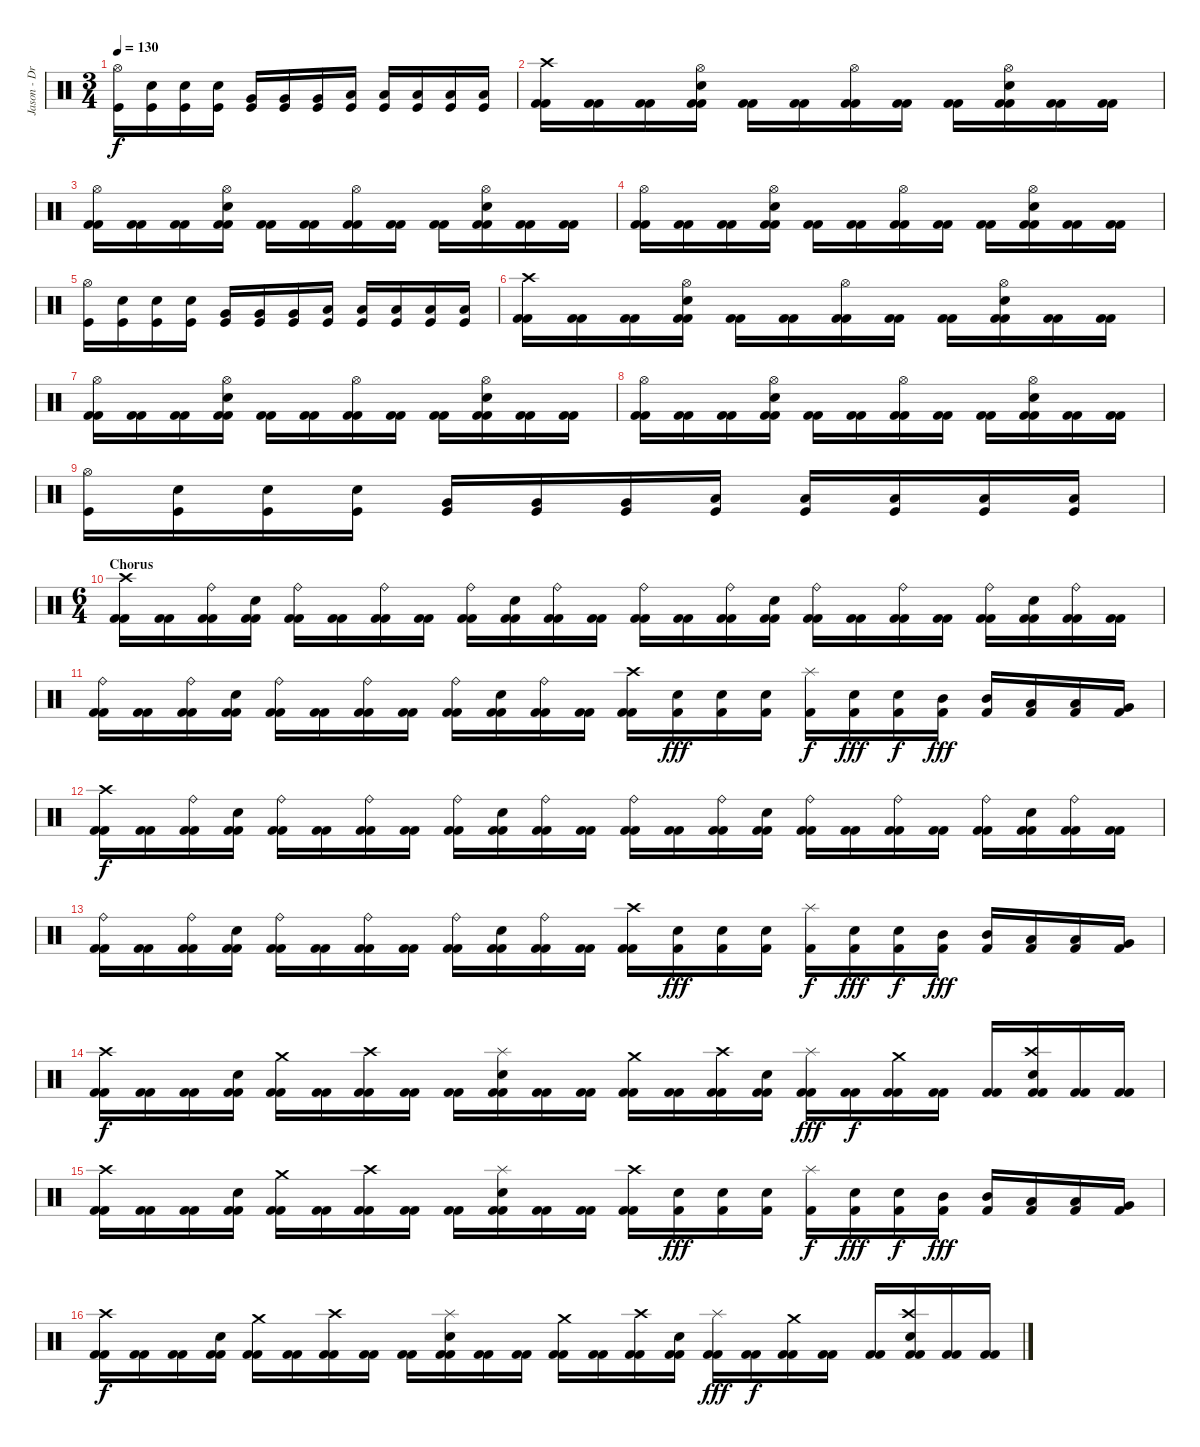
\track ("Jason - Drums" "Jason - Dr") {instrument percussion}
\staff {score}
\articulation defaults
\ts (3 4)
\tempo 130
\clef neutral
\ks c
("Hi-Hat (open)" "Kick (hit)").16{dy f} ("Electric Snare (hit)" "Kick (hit)").16 ("Electric Snare (hit)" "Kick (hit)").16 ("Electric Snare (hit)" "Kick (hit)").16 ("Very Low Tom (hit)" "Kick (hit)").16 ("Very Low Tom (hit)" "Kick (hit)").16 ("Very Low Tom (hit)" "Kick (hit)").16 ("Low Floor Tom (hit)" "Kick (hit)").16 ("Low Floor Tom (hit)" "Kick (hit)").16 ("Low Floor Tom (hit)" "Kick (hit)").16 ("Low Floor Tom (hit)" "Kick (hit)").16 ("Low Floor Tom (hit)" "Kick (hit)").16 |
("Crash high (hit)" "Kick (hit) 2" "Kick (hit) 2").16 ("Kick (hit) 2" "Kick (hit) 2").16 ("Kick (hit) 2" "Kick (hit) 2").16 ("Hi-Hat (open)" "Electric Snare (hit)" "Kick (hit) 2" "Kick (hit) 2").16 ("Kick (hit) 2" "Kick (hit) 2").16 ("Kick (hit) 2" "Kick (hit) 2").16 ("Hi-Hat (open)" "Kick (hit) 2" "Kick (hit) 2").16 ("Kick (hit) 2" "Kick (hit) 2").16 ("Kick (hit) 2" "Kick (hit) 2").16 ("Hi-Hat (open)" "Electric Snare (hit)" "Kick (hit) 2" "Kick (hit) 2").16 ("Kick (hit) 2" "Kick (hit) 2").16 ("Kick (hit) 2" "Kick (hit) 2").16 |
("Hi-Hat (open)" "Kick (hit) 2" "Kick (hit) 2").16 ("Kick (hit) 2" "Kick (hit) 2").16 ("Kick (hit) 2" "Kick (hit) 2").16 ("Hi-Hat (open)" "Electric Snare (hit)" "Kick (hit) 2" "Kick (hit) 2").16 ("Kick (hit) 2" "Kick (hit) 2").16 ("Kick (hit) 2" "Kick (hit) 2").16 ("Hi-Hat (open)" "Kick (hit) 2" "Kick (hit) 2").16 ("Kick (hit) 2" "Kick (hit) 2").16 ("Kick (hit) 2" "Kick (hit) 2").16 ("Hi-Hat (open)" "Electric Snare (hit)" "Kick (hit) 2" "Kick (hit) 2").16 ("Kick (hit) 2" "Kick (hit) 2").16 ("Kick (hit) 2" "Kick (hit) 2").16 |
("Hi-Hat (open)" "Kick (hit) 2" "Kick (hit) 2").16 ("Kick (hit) 2" "Kick (hit) 2").16 ("Kick (hit) 2" "Kick (hit) 2").16 ("Hi-Hat (open)" "Electric Snare (hit)" "Kick (hit) 2" "Kick (hit) 2").16 ("Kick (hit) 2" "Kick (hit) 2").16 ("Kick (hit) 2" "Kick (hit) 2").16 ("Hi-Hat (open)" "Kick (hit) 2" "Kick (hit) 2").16 ("Kick (hit) 2" "Kick (hit) 2").16 ("Kick (hit) 2" "Kick (hit) 2").16 ("Hi-Hat (open)" "Electric Snare (hit)" "Kick (hit) 2" "Kick (hit) 2").16 ("Kick (hit) 2" "Kick (hit) 2").16 ("Kick (hit) 2" "Kick (hit) 2").16 |
("Hi-Hat (open)" "Kick (hit)").16 ("Electric Snare (hit)" "Kick (hit)").16 ("Electric Snare (hit)" "Kick (hit)").16 ("Electric Snare (hit)" "Kick (hit)").16 ("Very Low Tom (hit)" "Kick (hit)").16 ("Very Low Tom (hit)" "Kick (hit)").16 ("Very Low Tom (hit)" "Kick (hit)").16 ("Low Floor Tom (hit)" "Kick (hit)").16 ("Low Floor Tom (hit)" "Kick (hit)").16 ("Low Floor Tom (hit)" "Kick (hit)").16 ("Low Floor Tom (hit)" "Kick (hit)").16 ("Low Floor Tom (hit)" "Kick (hit)").16 |
("Crash high (hit)" "Kick (hit) 2" "Kick (hit) 2").16 ("Kick (hit) 2" "Kick (hit) 2").16 ("Kick (hit) 2" "Kick (hit) 2").16 ("Hi-Hat (open)" "Electric Snare (hit)" "Kick (hit) 2" "Kick (hit) 2").16 ("Kick (hit) 2" "Kick (hit) 2").16 ("Kick (hit) 2" "Kick (hit) 2").16 ("Hi-Hat (open)" "Kick (hit) 2" "Kick (hit) 2").16 ("Kick (hit) 2" "Kick (hit) 2").16 ("Kick (hit) 2" "Kick (hit) 2").16 ("Hi-Hat (open)" "Electric Snare (hit)" "Kick (hit) 2" "Kick (hit) 2").16 ("Kick (hit) 2" "Kick (hit) 2").16 ("Kick (hit) 2" "Kick (hit) 2").16 |
("Hi-Hat (open)" "Kick (hit) 2" "Kick (hit) 2").16 ("Kick (hit) 2" "Kick (hit) 2").16 ("Kick (hit) 2" "Kick (hit) 2").16 ("Hi-Hat (open)" "Electric Snare (hit)" "Kick (hit) 2" "Kick (hit) 2").16 ("Kick (hit) 2" "Kick (hit) 2").16 ("Kick (hit) 2" "Kick (hit) 2").16 ("Hi-Hat (open)" "Kick (hit) 2" "Kick (hit) 2").16 ("Kick (hit) 2" "Kick (hit) 2").16 ("Kick (hit) 2" "Kick (hit) 2").16 ("Hi-Hat (open)" "Electric Snare (hit)" "Kick (hit) 2" "Kick (hit) 2").16 ("Kick (hit) 2" "Kick (hit) 2").16 ("Kick (hit) 2" "Kick (hit) 2").16 |
("Hi-Hat (open)" "Kick (hit) 2" "Kick (hit) 2").16 ("Kick (hit) 2" "Kick (hit) 2").16 ("Kick (hit) 2" "Kick (hit) 2").16 ("Hi-Hat (open)" "Electric Snare (hit)" "Kick (hit) 2" "Kick (hit) 2").16 ("Kick (hit) 2" "Kick (hit) 2").16 ("Kick (hit) 2" "Kick (hit) 2").16 ("Hi-Hat (open)" "Kick (hit) 2" "Kick (hit) 2").16 ("Kick (hit) 2" "Kick (hit) 2").16 ("Kick (hit) 2" "Kick (hit) 2").16 ("Hi-Hat (open)" "Electric Snare (hit)" "Kick (hit) 2" "Kick (hit) 2").16 ("Kick (hit) 2" "Kick (hit) 2").16 ("Kick (hit) 2" "Kick (hit) 2").16 |
("Hi-Hat (open)" "Kick (hit)").16 ("Electric Snare (hit)" "Kick (hit)").16 ("Electric Snare (hit)" "Kick (hit)").16 ("Electric Snare (hit)" "Kick (hit)").16 ("Very Low Tom (hit)" "Kick (hit)").16 ("Very Low Tom (hit)" "Kick (hit)").16 ("Very Low Tom (hit)" "Kick (hit)").16 ("Low Floor Tom (hit)" "Kick (hit)").16 ("Low Floor Tom (hit)" "Kick (hit)").16 ("Low Floor Tom (hit)" "Kick (hit)").16 ("Low Floor Tom (hit)" "Kick (hit)").16 ("Low Floor Tom (hit)" "Kick (hit)").16 |
\ts (6 4)
\section ("" "Chorus")
("Crash high (hit)" "Kick (hit) 2" "Kick (hit) 2").16 ("Kick (hit) 2" "Kick (hit) 2").16 ("Ride (bell)" "Kick (hit) 2" "Kick (hit) 2").16 ("Electric Snare (hit)" "Kick (hit) 2" "Kick (hit) 2").16 ("Ride (bell)" "Kick (hit) 2" "Kick (hit) 2").16 ("Kick (hit) 2" "Kick (hit) 2").16 ("Ride (bell)" "Kick (hit) 2" "Kick (hit) 2").16 ("Kick (hit) 2" "Kick (hit) 2").16 ("Ride (bell)" "Kick (hit) 2" "Kick (hit) 2").16 ("Electric Snare (hit)" "Kick (hit) 2" "Kick (hit) 2").16 ("Ride (bell)" "Kick (hit) 2" "Kick (hit) 2").16 ("Kick (hit) 2" "Kick (hit) 2").16 ("Ride (bell)" "Kick (hit) 2" "Kick (hit) 2").16 ("Kick (hit) 2" "Kick (hit) 2").16 ("Ride (bell)" "Kick (hit) 2" "Kick (hit) 2").16 ("Electric Snare (hit)" "Kick (hit) 2" "Kick (hit) 2").16 ("Ride (bell)" "Kick (hit) 2" "Kick (hit) 2").16 ("Kick (hit) 2" "Kick (hit) 2").16 ("Ride (bell)" "Kick (hit) 2" "Kick (hit) 2").16 ("Kick (hit) 2" "Kick (hit) 2").16 ("Ride (bell)" "Kick (hit) 2" "Kick (hit) 2").16 ("Electric Snare (hit)" "Kick (hit) 2" "Kick (hit) 2").16 ("Ride (bell)" "Kick (hit) 2" "Kick (hit) 2").16 ("Kick (hit) 2" "Kick (hit) 2").16 |
("Ride (bell)" "Kick (hit) 2" "Kick (hit) 2").16 ("Kick (hit) 2" "Kick (hit) 2").16 ("Ride (bell)" "Kick (hit) 2" "Kick (hit) 2").16 ("Electric Snare (hit)" "Kick (hit) 2" "Kick (hit) 2").16 ("Ride (bell)" "Kick (hit) 2" "Kick (hit) 2").16 ("Kick (hit) 2" "Kick (hit) 2").16 ("Ride (bell)" "Kick (hit) 2" "Kick (hit) 2").16 ("Kick (hit) 2" "Kick (hit) 2").16 ("Ride (bell)" "Kick (hit) 2" "Kick (hit) 2").16 ("Electric Snare (hit)" "Kick (hit) 2" "Kick (hit) 2").16 ("Ride (bell)" "Kick (hit) 2" "Kick (hit) 2").16 ("Kick (hit) 2" "Kick (hit) 2").16 ("Crash high (hit)" "Kick (hit) 2" "Kick (hit) 2").16 ("Electric Snare (hit)" "Kick (hit) 2").16{dy fff} ("Electric Snare (hit)" "Kick (hit) 2").16 ("Electric Snare (hit)" "Kick (hit) 2").16 ("Splash (hit)" "Kick (hit) 2").16{dy f} ("Electric Snare (hit)" "Kick (hit) 2").16{dy fff} ("Electric Snare (hit)" "Kick (hit) 2").16{dy f} ("Mid Tom (hit)" "Kick (hit) 2").16{dy fff} ("Mid Tom (hit)" "Kick (hit) 2").16 ("Low Tom (hit)" "Kick (hit) 2").16 ("Low Tom (hit)" "Kick (hit) 2").16 ("Very Low Tom (hit)" "Kick (hit) 2").16 |
("Crash high (hit)" "Kick (hit) 2" "Kick (hit) 2").16{dy f} ("Kick (hit) 2" "Kick (hit) 2").16 ("Ride (bell)" "Kick (hit) 2" "Kick (hit) 2").16 ("Electric Snare (hit)" "Kick (hit) 2" "Kick (hit) 2").16 ("Ride (bell)" "Kick (hit) 2" "Kick (hit) 2").16 ("Kick (hit) 2" "Kick (hit) 2").16 ("Ride (bell)" "Kick (hit) 2" "Kick (hit) 2").16 ("Kick (hit) 2" "Kick (hit) 2").16 ("Ride (bell)" "Kick (hit) 2" "Kick (hit) 2").16 ("Electric Snare (hit)" "Kick (hit) 2" "Kick (hit) 2").16 ("Ride (bell)" "Kick (hit) 2" "Kick (hit) 2").16 ("Kick (hit) 2" "Kick (hit) 2").16 ("Ride (bell)" "Kick (hit) 2" "Kick (hit) 2").16 ("Kick (hit) 2" "Kick (hit) 2").16 ("Ride (bell)" "Kick (hit) 2" "Kick (hit) 2").16 ("Electric Snare (hit)" "Kick (hit) 2" "Kick (hit) 2").16 ("Ride (bell)" "Kick (hit) 2" "Kick (hit) 2").16 ("Kick (hit) 2" "Kick (hit) 2").16 ("Ride (bell)" "Kick (hit) 2" "Kick (hit) 2").16 ("Kick (hit) 2" "Kick (hit) 2").16 ("Ride (bell)" "Kick (hit) 2" "Kick (hit) 2").16 ("Electric Snare (hit)" "Kick (hit) 2" "Kick (hit) 2").16 ("Ride (bell)" "Kick (hit) 2" "Kick (hit) 2").16 ("Kick (hit) 2" "Kick (hit) 2").16 |
("Ride (bell)" "Kick (hit) 2" "Kick (hit) 2").16 ("Kick (hit) 2" "Kick (hit) 2").16 ("Ride (bell)" "Kick (hit) 2" "Kick (hit) 2").16 ("Electric Snare (hit)" "Kick (hit) 2" "Kick (hit) 2").16 ("Ride (bell)" "Kick (hit) 2" "Kick (hit) 2").16 ("Kick (hit) 2" "Kick (hit) 2").16 ("Ride (bell)" "Kick (hit) 2" "Kick (hit) 2").16 ("Kick (hit) 2" "Kick (hit) 2").16 ("Ride (bell)" "Kick (hit) 2" "Kick (hit) 2").16 ("Electric Snare (hit)" "Kick (hit) 2" "Kick (hit) 2").16 ("Ride (bell)" "Kick (hit) 2" "Kick (hit) 2").16 ("Kick (hit) 2" "Kick (hit) 2").16 ("Crash high (hit)" "Kick (hit) 2" "Kick (hit) 2").16 ("Electric Snare (hit)" "Kick (hit) 2").16{dy fff} ("Electric Snare (hit)" "Kick (hit) 2").16 ("Electric Snare (hit)" "Kick (hit) 2").16 ("Splash (hit)" "Kick (hit) 2").16{dy f} ("Electric Snare (hit)" "Kick (hit) 2").16{dy fff} ("Electric Snare (hit)" "Kick (hit) 2").16{dy f} ("Mid Tom (hit)" "Kick (hit) 2").16{dy fff} ("Mid Tom (hit)" "Kick (hit) 2").16 ("Low Tom (hit)" "Kick (hit) 2").16 ("Low Tom (hit)" "Kick (hit) 2").16 ("Very Low Tom (hit)" "Kick (hit) 2").16 |
("Crash high (hit)" "Kick (hit) 2" "Kick (hit) 2").16{dy f} ("Kick (hit) 2" "Kick (hit) 2").16 ("Kick (hit) 2" "Kick (hit) 2").16 ("Electric Snare (hit)" "Kick (hit) 2" "Kick (hit) 2").16 ("Crash medium (hit)" "Kick (hit) 2" "Kick (hit) 2").16 ("Kick (hit) 2" "Kick (hit) 2").16 ("Crash high (hit)" "Kick (hit) 2" "Kick (hit) 2").16 ("Kick (hit) 2" "Kick (hit) 2").16 ("Kick (hit) 2" "Kick (hit) 2").16 ("Splash (hit)" "Electric Snare (hit)" "Kick (hit) 2" "Kick (hit) 2").16 ("Kick (hit) 2" "Kick (hit) 2").16 ("Kick (hit) 2" "Kick (hit) 2").16 ("Crash medium (hit)" "Kick (hit) 2" "Kick (hit) 2").16 ("Kick (hit) 2" "Kick (hit) 2").16 ("Crash high (hit)" "Kick (hit) 2" "Kick (hit) 2").16 ("Electric Snare (hit)" "Kick (hit) 2" "Kick (hit) 2").16 ("Splash (hit)" "Kick (hit) 2" "Kick (hit) 2").16{dy fff} ("Kick (hit) 2" "Kick (hit) 2").16{dy f} ("Crash medium (hit)" "Kick (hit) 2" "Kick (hit) 2").16 ("Kick (hit) 2" "Kick (hit) 2").16 ("Kick (hit) 2" "Kick (hit) 2").16 ("Crash high (hit)" "Electric Snare (hit)" "Kick (hit) 2" "Kick (hit) 2").16 ("Kick (hit) 2" "Kick (hit) 2").16 ("Kick (hit) 2" "Kick (hit) 2").16 |
("Crash high (hit)" "Kick (hit) 2" "Kick (hit) 2").16 ("Kick (hit) 2" "Kick (hit) 2").16 ("Kick (hit) 2" "Kick (hit) 2").16 ("Electric Snare (hit)" "Kick (hit) 2" "Kick (hit) 2").16 ("Crash medium (hit)" "Kick (hit) 2" "Kick (hit) 2").16 ("Kick (hit) 2" "Kick (hit) 2").16 ("Crash high (hit)" "Kick (hit) 2" "Kick (hit) 2").16 ("Kick (hit) 2" "Kick (hit) 2").16 ("Kick (hit) 2" "Kick (hit) 2").16 ("Splash (hit)" "Electric Snare (hit)" "Kick (hit) 2" "Kick (hit) 2").16 ("Kick (hit) 2" "Kick (hit) 2").16 ("Kick (hit) 2" "Kick (hit) 2").16 ("Crash high (hit)" "Kick (hit) 2" "Kick (hit) 2").16 ("Electric Snare (hit)" "Kick (hit) 2").16{dy fff} ("Electric Snare (hit)" "Kick (hit) 2").16 ("Electric Snare (hit)" "Kick (hit) 2").16 ("Splash (hit)" "Kick (hit) 2").16{dy f} ("Electric Snare (hit)" "Kick (hit) 2").16{dy fff} ("Electric Snare (hit)" "Kick (hit) 2").16{dy f} ("Mid Tom (hit)" "Kick (hit) 2").16{dy fff} ("Mid Tom (hit)" "Kick (hit) 2").16 ("Low Tom (hit)" "Kick (hit) 2").16 ("Low Tom (hit)" "Kick (hit) 2").16 ("Very Low Tom (hit)" "Kick (hit) 2").16 |
("Crash high (hit)" "Kick (hit) 2" "Kick (hit) 2").16{dy f} ("Kick (hit) 2" "Kick (hit) 2").16 ("Kick (hit) 2" "Kick (hit) 2").16 ("Electric Snare (hit)" "Kick (hit) 2" "Kick (hit) 2").16 ("Crash medium (hit)" "Kick (hit) 2" "Kick (hit) 2").16 ("Kick (hit) 2" "Kick (hit) 2").16 ("Crash high (hit)" "Kick (hit) 2" "Kick (hit) 2").16 ("Kick (hit) 2" "Kick (hit) 2").16 ("Kick (hit) 2" "Kick (hit) 2").16 ("Splash (hit)" "Electric Snare (hit)" "Kick (hit) 2" "Kick (hit) 2").16 ("Kick (hit) 2" "Kick (hit) 2").16 ("Kick (hit) 2" "Kick (hit) 2").16 ("Crash medium (hit)" "Kick (hit) 2" "Kick (hit) 2").16 ("Kick (hit) 2" "Kick (hit) 2").16 ("Crash high (hit)" "Kick (hit) 2" "Kick (hit) 2").16 ("Electric Snare (hit)" "Kick (hit) 2" "Kick (hit) 2").16 ("Splash (hit)" "Kick (hit) 2" "Kick (hit) 2").16{dy fff} ("Kick (hit) 2" "Kick (hit) 2").16{dy f} ("Crash medium (hit)" "Kick (hit) 2" "Kick (hit) 2").16 ("Kick (hit) 2" "Kick (hit) 2").16 ("Kick (hit) 2" "Kick (hit) 2").16 ("Crash high (hit)" "Electric Snare (hit)" "Kick (hit) 2" "Kick (hit) 2").16 ("Kick (hit) 2" "Kick (hit) 2").16 ("Kick (hit) 2" "Kick (hit) 2").16
